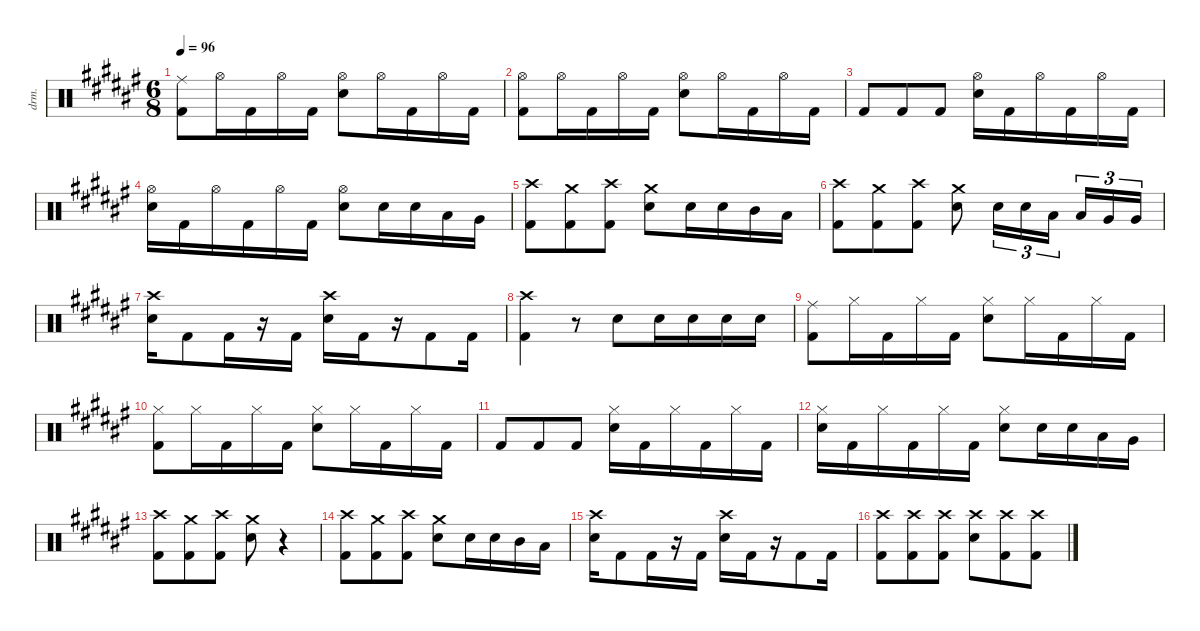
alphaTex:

\defaultSystemsLayout 4
\hideDynamics
\bracketExtendMode nobrackets
\otherSystemsTrackNameOrientation horizontal
\track ("Drumkit" "drm.") {instrument percussion}
\staff {score}
\articulation defaults
\ts (6 8)
\tempo 96
\clef neutral
\ks f#
("Kick (hit) 2"{acc forcenatural} "Ride (middle)"{acc #}).8{dy ff} "Hi-Hat (open)"{acc #}.16 "Kick (hit) 2"{acc forcenatural}.16 "Hi-Hat (open)"{acc #}.16 "Kick (hit) 2"{acc forcenatural}.16 ("Snare (hit) 2"{acc forcenatural} "Hi-Hat (open)"{acc #}).8 "Hi-Hat (open)"{acc #}.16 "Kick (hit) 2"{acc forcenatural}.16 "Hi-Hat (open)"{acc #}.16 "Kick (hit) 2"{acc forcenatural}.16 |
("Kick (hit) 2"{acc forcenatural} "Hi-Hat (open)"{acc #}).8 "Hi-Hat (open)"{acc #}.16 "Kick (hit) 2"{acc forcenatural}.16 "Hi-Hat (open)"{acc #}.16 "Kick (hit) 2"{acc forcenatural}.16 ("Snare (hit) 2"{acc forcenatural} "Hi-Hat (open)"{acc #}).8 "Hi-Hat (open)"{acc #}.16 "Kick (hit) 2"{acc forcenatural}.16 "Hi-Hat (open)"{acc #}.16 "Kick (hit) 2"{acc forcenatural}.16 |
"Kick (hit) 2"{acc forcenatural}.8 "Kick (hit) 2"{acc forcenatural}.8 "Kick (hit) 2"{acc forcenatural}.8 ("Snare (hit) 2"{acc forcenatural} "Hi-Hat (open)"{acc #}).16 "Kick (hit) 2"{acc forcenatural}.16 "Hi-Hat (open)"{acc #}.16 "Kick (hit) 2"{acc forcenatural}.16 "Hi-Hat (open)"{acc #}.16 "Kick (hit) 2"{acc forcenatural}.16 |
("Snare (hit) 2"{acc forcenatural} "Hi-Hat (open)"{acc #}).16 "Kick (hit) 2"{acc forcenatural}.16 "Hi-Hat (open)"{acc #}.16 "Kick (hit) 2"{acc forcenatural}.16 "Hi-Hat (open)"{acc #}.16 "Kick (hit) 2"{acc forcenatural}.16 ("Snare (hit) 2"{acc forcenatural} "Hi-Hat (open)"{acc #}).8 "Snare (hit) 2"{acc forcenatural}.16 "Snare (hit) 2"{acc forcenatural}.16 "Low Tom (hit)"{acc forcenatural}.16 "Very Low Tom (hit)"{acc forcenatural}.16 |
("Kick (hit) 2"{acc forcenatural} "Crash high (hit)"{acc #}).8 ("Kick (hit) 2"{acc forcenatural} "Crash medium (hit)"{acc forcenatural}).8 ("Kick (hit) 2"{acc forcenatural} "Crash high (hit)"{acc #}).8 ("Snare (hit) 2"{acc forcenatural} "Crash medium (hit)"{acc forcenatural}).8 "Snare (hit) 2"{acc forcenatural}.16 "Snare (hit) 2"{acc forcenatural}.16 "Mid Tom (hit)"{acc forcenatural}.16 "Low Tom (hit)"{acc forcenatural}.16 |
("Kick (hit) 2"{acc forcenatural} "Crash high (hit)"{acc #}).8 ("Kick (hit) 2"{acc forcenatural} "Crash medium (hit)"{acc forcenatural}).8 ("Kick (hit) 2"{acc forcenatural} "Crash high (hit)"{acc #}).8 ("Snare (hit) 2"{acc forcenatural} "Crash medium (hit)"{acc forcenatural}).8 "Snare (hit) 2"{acc forcenatural}.16{tu (3 2)} "Snare (hit) 2"{acc forcenatural}.16{tu (3 2)} "Low Tom (hit)"{acc forcenatural}.16{tu (3 2)} "Low Tom (hit)"{acc forcenatural}.16{tu (3 2)} "Very Low Tom (hit)"{acc forcenatural}.16{tu (3 2)} "Very Low Tom (hit)"{acc forcenatural}.16{tu (3 2)} |
("Snare (hit) 2"{acc forcenatural} "Crash high (hit)"{acc #}).16 "Kick (hit) 2"{acc forcenatural}.8 "Kick (hit) 2"{acc forcenatural}.16 r.16 "Kick (hit) 2"{acc forcenatural}.16 ("Snare (hit) 2"{acc forcenatural} "Crash high (hit)"{acc #}).16 "Kick (hit) 2"{acc forcenatural}.16 r.16 "Kick (hit) 2"{acc forcenatural}.8 "Kick (hit) 2"{acc forcenatural}.16 |
("Kick (hit) 2"{acc forcenatural} "Crash high (hit)"{acc #}).4 r.8 "Snare (hit) 2"{acc forcenatural}.8 "Snare (hit) 2"{acc forcenatural}.16 "Snare (hit) 2"{acc forcenatural}.16 "Snare (hit) 2"{acc forcenatural}.16 "Snare (hit) 2"{acc forcenatural}.16 |
("Kick (hit) 2"{acc forcenatural} "Ride (middle)"{acc #}).8 "Hi-Hat (closed)"{acc #}.16 "Kick (hit) 2"{acc forcenatural}.16 "Hi-Hat (closed)"{acc #}.16 "Kick (hit) 2"{acc forcenatural}.16 ("Snare (hit) 2"{acc forcenatural} "Hi-Hat (closed)"{acc #}).8 "Hi-Hat (closed)"{acc #}.16 "Kick (hit) 2"{acc forcenatural}.16 "Hi-Hat (closed)"{acc #}.16 "Kick (hit) 2"{acc forcenatural}.16 |
("Kick (hit) 2"{acc forcenatural} "Hi-Hat (closed)"{acc #}).8 "Hi-Hat (closed)"{acc #}.16 "Kick (hit) 2"{acc forcenatural}.16 "Hi-Hat (closed)"{acc #}.16 "Kick (hit) 2"{acc forcenatural}.16 ("Snare (hit) 2"{acc forcenatural} "Hi-Hat (closed)"{acc #}).8 "Hi-Hat (closed)"{acc #}.16 "Kick (hit) 2"{acc forcenatural}.16 "Hi-Hat (closed)"{acc #}.16 "Kick (hit) 2"{acc forcenatural}.16 |
"Kick (hit) 2"{acc forcenatural}.8 "Kick (hit) 2"{acc forcenatural}.8 "Kick (hit) 2"{acc forcenatural}.8 ("Snare (hit) 2"{acc forcenatural} "Hi-Hat (closed)"{acc #}).16 "Kick (hit) 2"{acc forcenatural}.16 "Hi-Hat (closed)"{acc #}.16 "Kick (hit) 2"{acc forcenatural}.16 "Hi-Hat (closed)"{acc #}.16 "Kick (hit) 2"{acc forcenatural}.16 |
("Snare (hit) 2"{acc forcenatural} "Hi-Hat (closed)"{acc #}).16 "Kick (hit) 2"{acc forcenatural}.16 "Hi-Hat (closed)"{acc #}.16 "Kick (hit) 2"{acc forcenatural}.16 "Hi-Hat (closed)"{acc #}.16 "Kick (hit) 2"{acc forcenatural}.16 ("Snare (hit) 2"{acc forcenatural} "Hi-Hat (closed)"{acc #}).8 "Snare (hit) 2"{acc forcenatural}.16 "Snare (hit) 2"{acc forcenatural}.16 "Low Tom (hit)"{acc forcenatural}.16 "Very Low Tom (hit)"{acc forcenatural}.16 |
("Kick (hit) 2"{acc forcenatural} "Crash high (hit)"{acc #}).8 ("Kick (hit) 2"{acc forcenatural} "Crash medium (hit)"{acc forcenatural}).8 ("Kick (hit) 2"{acc forcenatural} "Crash high (hit)"{acc #}).8 ("Snare (hit) 2"{acc forcenatural} "Crash medium (hit)"{acc forcenatural}).8 r.4 |
("Kick (hit) 2"{acc forcenatural} "Crash high (hit)"{acc #}).8 ("Kick (hit) 2"{acc forcenatural} "Crash medium (hit)"{acc forcenatural}).8 ("Kick (hit) 2"{acc forcenatural} "Crash high (hit)"{acc #}).8 ("Snare (hit) 2"{acc forcenatural} "Crash medium (hit)"{acc forcenatural}).8 "Snare (hit) 2"{acc forcenatural}.16 "Snare (hit) 2"{acc forcenatural}.16 "Mid Tom (hit)"{acc forcenatural}.16 "Low Tom (hit)"{acc forcenatural}.16 |
("Snare (hit) 2"{acc forcenatural} "Crash high (hit)"{acc #}).16 "Kick (hit) 2"{acc forcenatural}.8 "Kick (hit) 2"{acc forcenatural}.16 r.16 "Kick (hit) 2"{acc forcenatural}.16 ("Snare (hit) 2"{acc forcenatural} "Crash high (hit)"{acc #}).16 "Kick (hit) 2"{acc forcenatural}.16 r.16 "Kick (hit) 2"{acc forcenatural}.8 "Kick (hit) 2"{acc forcenatural}.16 |
("Kick (hit) 2"{acc forcenatural} "Crash high (hit)"{acc #}).8 ("Kick (hit) 2"{acc forcenatural} "Crash high (hit)"{acc #}).8 ("Kick (hit) 2"{acc forcenatural} "Crash high (hit)"{acc #}).8 ("Snare (hit) 2"{acc forcenatural} "Crash high (hit)"{acc #}).8 ("Kick (hit) 2"{acc forcenatural} "Crash high (hit)"{acc #}).8 ("Kick (hit) 2"{acc forcenatural} "Crash high (hit)"{acc #}).8
